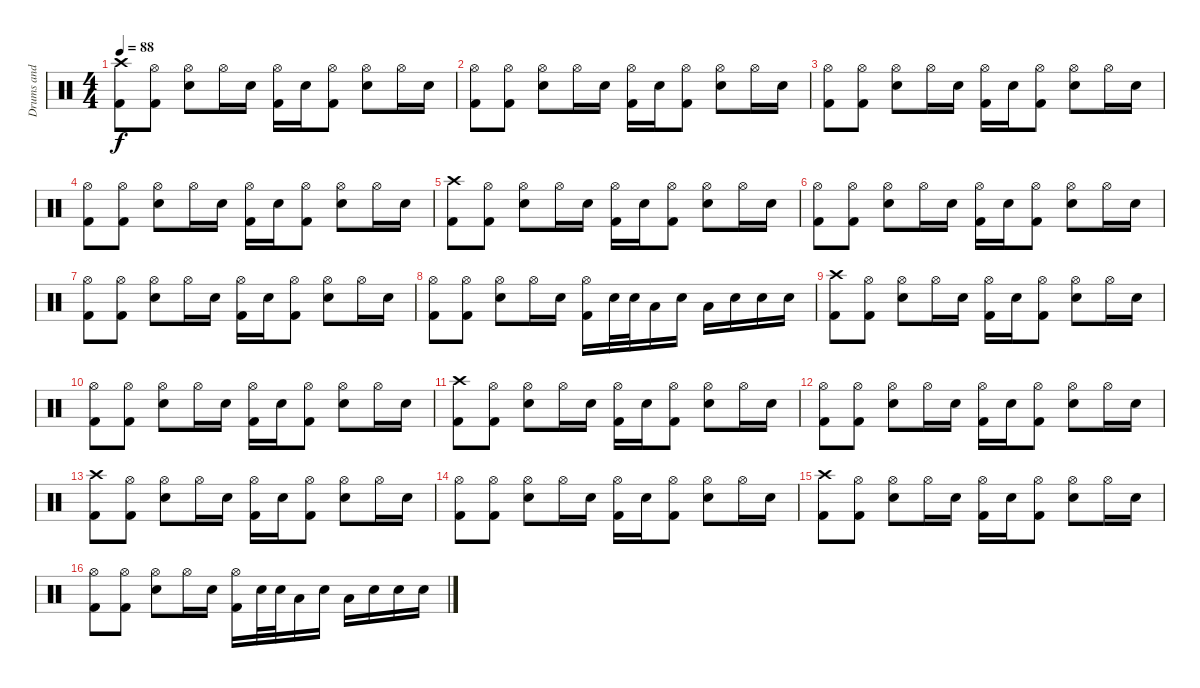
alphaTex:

\track ("Drums and Percussion" "Drums and ") {instrument percussion}
\staff {score}
\articulation defaults
\ts (4 4)
\tempo 88
\clef neutral
\ks c
("Crash high (hit)" "Kick (hit) 2").8{dy f} ("Hi-Hat (open)" "Kick (hit) 2").8 ("Hi-Hat (open)" "Snare (hit) 2").8 "Hi-Hat (open)".16 "Snare (hit) 2".16 ("Hi-Hat (open)" "Kick (hit) 2").16 "Snare (hit) 2".16 ("Hi-Hat (open)" "Kick (hit) 2").8 ("Hi-Hat (open)" "Snare (hit) 2").8 "Hi-Hat (open)".16 "Snare (hit) 2".16 |
("Hi-Hat (open)" "Kick (hit) 2").8 ("Hi-Hat (open)" "Kick (hit) 2").8 ("Hi-Hat (open)" "Snare (hit) 2").8 "Hi-Hat (open)".16 "Snare (hit) 2".16 ("Hi-Hat (open)" "Kick (hit) 2").16 "Snare (hit) 2".16 ("Hi-Hat (open)" "Kick (hit) 2").8 ("Hi-Hat (open)" "Snare (hit) 2").8 "Hi-Hat (open)".16 "Snare (hit) 2".16 |
("Hi-Hat (open)" "Kick (hit) 2").8 ("Hi-Hat (open)" "Kick (hit) 2").8 ("Hi-Hat (open)" "Snare (hit) 2").8 "Hi-Hat (open)".16 "Snare (hit) 2".16 ("Hi-Hat (open)" "Kick (hit) 2").16 "Snare (hit) 2".16 ("Hi-Hat (open)" "Kick (hit) 2").8 ("Hi-Hat (open)" "Snare (hit) 2").8 "Hi-Hat (open)".16 "Snare (hit) 2".16 |
("Hi-Hat (open)" "Kick (hit) 2").8 ("Hi-Hat (open)" "Kick (hit) 2").8 ("Hi-Hat (open)" "Snare (hit) 2").8 "Hi-Hat (open)".16 "Snare (hit) 2".16 ("Hi-Hat (open)" "Kick (hit) 2").16 "Snare (hit) 2".16 ("Hi-Hat (open)" "Kick (hit) 2").8 ("Hi-Hat (open)" "Snare (hit) 2").8 "Hi-Hat (open)".16 "Snare (hit) 2".16 |
("Crash high (hit)" "Kick (hit) 2").8 ("Hi-Hat (open)" "Kick (hit) 2").8 ("Hi-Hat (open)" "Snare (hit) 2").8 "Hi-Hat (open)".16 "Snare (hit) 2".16 ("Hi-Hat (open)" "Kick (hit) 2").16 "Snare (hit) 2".16 ("Hi-Hat (open)" "Kick (hit) 2").8 ("Hi-Hat (open)" "Snare (hit) 2").8 "Hi-Hat (open)".16 "Snare (hit) 2".16 |
("Hi-Hat (open)" "Kick (hit) 2").8 ("Hi-Hat (open)" "Kick (hit) 2").8 ("Hi-Hat (open)" "Snare (hit) 2").8 "Hi-Hat (open)".16 "Snare (hit) 2".16 ("Hi-Hat (open)" "Kick (hit) 2").16 "Snare (hit) 2".16 ("Hi-Hat (open)" "Kick (hit) 2").8 ("Hi-Hat (open)" "Snare (hit) 2").8 "Hi-Hat (open)".16 "Snare (hit) 2".16 |
("Hi-Hat (open)" "Kick (hit) 2").8 ("Hi-Hat (open)" "Kick (hit) 2").8 ("Hi-Hat (open)" "Snare (hit) 2").8 "Hi-Hat (open)".16 "Snare (hit) 2".16 ("Hi-Hat (open)" "Kick (hit) 2").16 "Snare (hit) 2".16 ("Hi-Hat (open)" "Kick (hit) 2").8 ("Hi-Hat (open)" "Snare (hit) 2").8 "Hi-Hat (open)".16 "Snare (hit) 2".16 |
("Hi-Hat (open)" "Kick (hit) 2").8 ("Hi-Hat (open)" "Kick (hit) 2").8 ("Hi-Hat (open)" "Snare (hit) 2").8 "Hi-Hat (open)".16 "Snare (hit) 2".16 ("Hi-Hat (open)" "Kick (hit) 2").16 "Snare (hit) 2".32 "Snare (hit) 2".32 "Low Tom (hit)".16 "Snare (hit) 2".16 "Low Tom (hit)".16 "Snare (hit) 2".16 "Snare (hit) 2".16 "Snare (hit) 2".16 |
("Crash high (hit)" "Kick (hit) 2").8 ("Hi-Hat (open)" "Kick (hit) 2").8 ("Hi-Hat (open)" "Snare (hit) 2").8 "Hi-Hat (open)".16 "Snare (hit) 2".16 ("Hi-Hat (open)" "Kick (hit) 2").16 "Snare (hit) 2".16 ("Hi-Hat (open)" "Kick (hit) 2").8 ("Hi-Hat (open)" "Snare (hit) 2").8 "Hi-Hat (open)".16 "Snare (hit) 2".16 |
("Hi-Hat (open)" "Kick (hit) 2").8 ("Hi-Hat (open)" "Kick (hit) 2").8 ("Hi-Hat (open)" "Snare (hit) 2").8 "Hi-Hat (open)".16 "Snare (hit) 2".16 ("Hi-Hat (open)" "Kick (hit) 2").16 "Snare (hit) 2".16 ("Hi-Hat (open)" "Kick (hit) 2").8 ("Hi-Hat (open)" "Snare (hit) 2").8 "Hi-Hat (open)".16 "Snare (hit) 2".16 |
("Crash high (hit)" "Kick (hit) 2").8 ("Hi-Hat (open)" "Kick (hit) 2").8 ("Hi-Hat (open)" "Snare (hit) 2").8 "Hi-Hat (open)".16 "Snare (hit) 2".16 ("Hi-Hat (open)" "Kick (hit) 2").16 "Snare (hit) 2".16 ("Hi-Hat (open)" "Kick (hit) 2").8 ("Hi-Hat (open)" "Snare (hit) 2").8 "Hi-Hat (open)".16 "Snare (hit) 2".16 |
("Hi-Hat (open)" "Kick (hit) 2").8 ("Hi-Hat (open)" "Kick (hit) 2").8 ("Hi-Hat (open)" "Snare (hit) 2").8 "Hi-Hat (open)".16 "Snare (hit) 2".16 ("Hi-Hat (open)" "Kick (hit) 2").16 "Snare (hit) 2".16 ("Hi-Hat (open)" "Kick (hit) 2").8 ("Hi-Hat (open)" "Snare (hit) 2").8 "Hi-Hat (open)".16 "Snare (hit) 2".16 |
("Crash high (hit)" "Kick (hit) 2").8 ("Hi-Hat (open)" "Kick (hit) 2").8 ("Hi-Hat (open)" "Snare (hit) 2").8 "Hi-Hat (open)".16 "Snare (hit) 2".16 ("Hi-Hat (open)" "Kick (hit) 2").16 "Snare (hit) 2".16 ("Hi-Hat (open)" "Kick (hit) 2").8 ("Hi-Hat (open)" "Snare (hit) 2").8 "Hi-Hat (open)".16 "Snare (hit) 2".16 |
("Hi-Hat (open)" "Kick (hit) 2").8 ("Hi-Hat (open)" "Kick (hit) 2").8 ("Hi-Hat (open)" "Snare (hit) 2").8 "Hi-Hat (open)".16 "Snare (hit) 2".16 ("Hi-Hat (open)" "Kick (hit) 2").16 "Snare (hit) 2".16 ("Hi-Hat (open)" "Kick (hit) 2").8 ("Hi-Hat (open)" "Snare (hit) 2").8 "Hi-Hat (open)".16 "Snare (hit) 2".16 |
("Crash high (hit)" "Kick (hit) 2").8 ("Hi-Hat (open)" "Kick (hit) 2").8 ("Hi-Hat (open)" "Snare (hit) 2").8 "Hi-Hat (open)".16 "Snare (hit) 2".16 ("Hi-Hat (open)" "Kick (hit) 2").16 "Snare (hit) 2".16 ("Hi-Hat (open)" "Kick (hit) 2").8 ("Hi-Hat (open)" "Snare (hit) 2").8 "Hi-Hat (open)".16 "Snare (hit) 2".16 |
("Hi-Hat (open)" "Kick (hit) 2").8 ("Hi-Hat (open)" "Kick (hit) 2").8 ("Hi-Hat (open)" "Snare (hit) 2").8 "Hi-Hat (open)".16 "Snare (hit) 2".16 ("Hi-Hat (open)" "Kick (hit) 2").16 "Snare (hit) 2".32 "Snare (hit) 2".32 "Low Tom (hit)".16 "Snare (hit) 2".16 "Low Tom (hit)".16 "Snare (hit) 2".16 "Snare (hit) 2".16 "Snare (hit) 2".16
